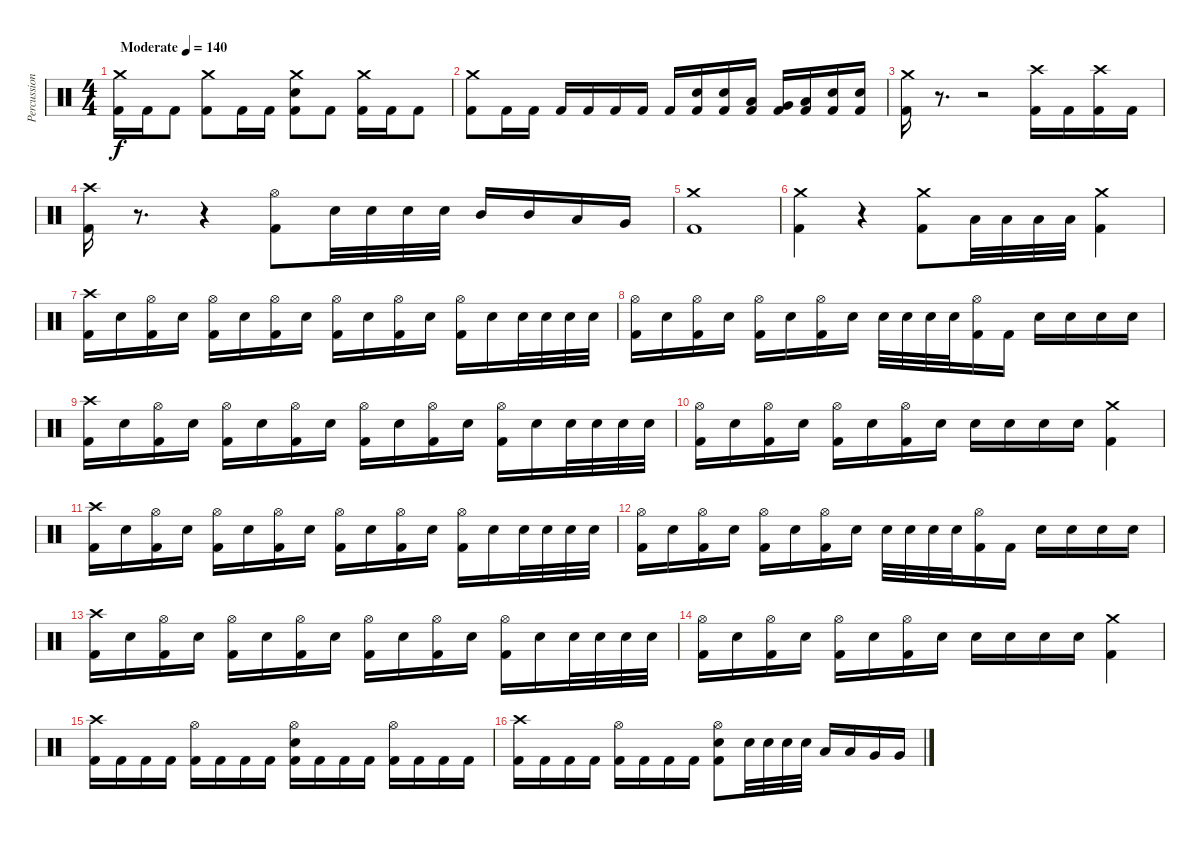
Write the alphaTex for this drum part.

\track ("Percussion" "Percussion") {instrument percussion}
\staff {score}
\articulation defaults
\ts (4 4)
\tempo (140 "Moderate")
\clef neutral
\ks c
("Crash medium (hit)" "Kick (hit) 2").16{dy f} "Kick (hit) 2".16 "Kick (hit) 2".8 ("Crash medium (hit)" "Kick (hit) 2").8 "Kick (hit) 2".16 "Kick (hit) 2".16 ("Crash medium (hit)" "Electric Snare (hit)" "Kick (hit) 2").8 "Kick (hit) 2".8 ("Crash medium (hit)" "Kick (hit) 2").16 "Kick (hit) 2".16 "Kick (hit) 2".8 |
("Crash medium (hit)" "Kick (hit) 2").8 "Kick (hit) 2".16 "Kick (hit) 2".16 "Kick (hit) 2".16 "Kick (hit) 2".16 "Kick (hit) 2".16 "Kick (hit) 2".16 "Kick (hit) 2".16 ("Electric Snare (hit)" "Kick (hit) 2").16 ("Electric Snare (hit)" "Kick (hit) 2").16 ("Low Tom (hit)" "Kick (hit) 2").16 ("Very Low Tom (hit)" "Kick (hit) 2").16 ("Low Floor Tom (hit)" "Kick (hit) 2").16 ("Electric Snare (hit)" "Kick (hit) 2").16 ("Electric Snare (hit)" "Kick (hit) 2").16 |
("Crash medium (hit)" "Kick (hit) 2").16 r.8{d} r.2 ("Crash high (hit)" "Kick (hit) 2").16 "Kick (hit) 2".16 ("Crash high (hit)" "Kick (hit) 2").16 "Kick (hit) 2".16 |
("Crash high (hit)" "Kick (hit) 2").16 r.8{d} r.4 ("Hi-Hat (open)" "Kick (hit) 2").8 "Electric Snare (hit)".32 "Electric Snare (hit)".32 "Electric Snare (hit)".32 "Electric Snare (hit)".32 "Mid Tom (hit)".16 "Mid Tom (hit)".16 "Low Tom (hit)".16 "Very Low Tom (hit)".16 |
("Crash medium (hit)" "Kick (hit) 2").1 |
("Crash medium (hit)" "Kick (hit) 2").4 r.4 ("Crash medium (hit)" "Kick (hit) 2").8 "Low Tom (hit)".32 "Low Tom (hit)".32 "Low Tom (hit)".32 "Low Tom (hit)".32 ("Crash medium (hit)" "Kick (hit) 2").4 |
("Crash high (hit)" "Kick (hit) 2").16 "Electric Snare (hit)".16 ("Hi-Hat (open)" "Kick (hit) 2").16 "Electric Snare (hit)".16 ("Hi-Hat (open)" "Kick (hit) 2").16 "Electric Snare (hit)".16 ("Hi-Hat (open)" "Kick (hit) 2").16 "Electric Snare (hit)".16 ("Hi-Hat (open)" "Kick (hit) 2").16 "Electric Snare (hit)".16 ("Hi-Hat (open)" "Kick (hit) 2").16 "Electric Snare (hit)".16 ("Hi-Hat (open)" "Kick (hit) 2").16 "Electric Snare (hit)".16 "Electric Snare (hit)".32 "Electric Snare (hit)".32 "Electric Snare (hit)".32 "Electric Snare (hit)".32 |
("Hi-Hat (open)" "Kick (hit) 2").16 "Electric Snare (hit)".16 ("Hi-Hat (open)" "Kick (hit) 2").16 "Electric Snare (hit)".16 ("Hi-Hat (open)" "Kick (hit) 2").16 "Electric Snare (hit)".16 ("Hi-Hat (open)" "Kick (hit) 2").16 "Electric Snare (hit)".16 "Electric Snare (hit)".32 "Electric Snare (hit)".32 "Electric Snare (hit)".32 "Electric Snare (hit)".32 ("Hi-Hat (open)" "Kick (hit) 2").16 "Kick (hit) 2".16 "Electric Snare (hit)".16 "Electric Snare (hit)".16 "Electric Snare (hit)".16 "Electric Snare (hit)".16 |
("Crash high (hit)" "Kick (hit) 2").16 "Electric Snare (hit)".16 ("Hi-Hat (open)" "Kick (hit) 2").16 "Electric Snare (hit)".16 ("Hi-Hat (open)" "Kick (hit) 2").16 "Electric Snare (hit)".16 ("Hi-Hat (open)" "Kick (hit) 2").16 "Electric Snare (hit)".16 ("Hi-Hat (open)" "Kick (hit) 2").16 "Electric Snare (hit)".16 ("Hi-Hat (open)" "Kick (hit) 2").16 "Electric Snare (hit)".16 ("Hi-Hat (open)" "Kick (hit) 2").16 "Electric Snare (hit)".16 "Electric Snare (hit)".32 "Electric Snare (hit)".32 "Electric Snare (hit)".32 "Electric Snare (hit)".32 |
("Hi-Hat (open)" "Kick (hit) 2").16 "Electric Snare (hit)".16 ("Hi-Hat (open)" "Kick (hit) 2").16 "Electric Snare (hit)".16 ("Hi-Hat (open)" "Kick (hit) 2").16 "Electric Snare (hit)".16 ("Hi-Hat (open)" "Kick (hit) 2").16 "Electric Snare (hit)".16 "Electric Snare (hit)".16 "Electric Snare (hit)".16 "Electric Snare (hit)".16 "Electric Snare (hit)".16 ("Crash medium (hit)" "Kick (hit) 2").4 |
("Crash high (hit)" "Kick (hit) 2").16 "Electric Snare (hit)".16 ("Hi-Hat (open)" "Kick (hit) 2").16 "Electric Snare (hit)".16 ("Hi-Hat (open)" "Kick (hit) 2").16 "Electric Snare (hit)".16 ("Hi-Hat (open)" "Kick (hit) 2").16 "Electric Snare (hit)".16 ("Hi-Hat (open)" "Kick (hit) 2").16 "Electric Snare (hit)".16 ("Hi-Hat (open)" "Kick (hit) 2").16 "Electric Snare (hit)".16 ("Hi-Hat (open)" "Kick (hit) 2").16 "Electric Snare (hit)".16 "Electric Snare (hit)".32 "Electric Snare (hit)".32 "Electric Snare (hit)".32 "Electric Snare (hit)".32 |
("Hi-Hat (open)" "Kick (hit) 2").16 "Electric Snare (hit)".16 ("Hi-Hat (open)" "Kick (hit) 2").16 "Electric Snare (hit)".16 ("Hi-Hat (open)" "Kick (hit) 2").16 "Electric Snare (hit)".16 ("Hi-Hat (open)" "Kick (hit) 2").16 "Electric Snare (hit)".16 "Electric Snare (hit)".32 "Electric Snare (hit)".32 "Electric Snare (hit)".32 "Electric Snare (hit)".32 ("Hi-Hat (open)" "Kick (hit) 2").16 "Kick (hit) 2".16 "Electric Snare (hit)".16 "Electric Snare (hit)".16 "Electric Snare (hit)".16 "Electric Snare (hit)".16 |
("Crash high (hit)" "Kick (hit) 2").16 "Electric Snare (hit)".16 ("Hi-Hat (open)" "Kick (hit) 2").16 "Electric Snare (hit)".16 ("Hi-Hat (open)" "Kick (hit) 2").16 "Electric Snare (hit)".16 ("Hi-Hat (open)" "Kick (hit) 2").16 "Electric Snare (hit)".16 ("Hi-Hat (open)" "Kick (hit) 2").16 "Electric Snare (hit)".16 ("Hi-Hat (open)" "Kick (hit) 2").16 "Electric Snare (hit)".16 ("Hi-Hat (open)" "Kick (hit) 2").16 "Electric Snare (hit)".16 "Electric Snare (hit)".32 "Electric Snare (hit)".32 "Electric Snare (hit)".32 "Electric Snare (hit)".32 |
("Hi-Hat (open)" "Kick (hit) 2").16 "Electric Snare (hit)".16 ("Hi-Hat (open)" "Kick (hit) 2").16 "Electric Snare (hit)".16 ("Hi-Hat (open)" "Kick (hit) 2").16 "Electric Snare (hit)".16 ("Hi-Hat (open)" "Kick (hit) 2").16 "Electric Snare (hit)".16 "Electric Snare (hit)".16 "Electric Snare (hit)".16 "Electric Snare (hit)".16 "Electric Snare (hit)".16 ("Crash medium (hit)" "Kick (hit) 2").4 |
("Crash high (hit)" "Kick (hit) 2").16 "Kick (hit) 2".16 "Kick (hit) 2".16 "Kick (hit) 2".16 ("Hi-Hat (open)" "Kick (hit) 2").16 "Kick (hit) 2".16 "Kick (hit) 2".16 "Kick (hit) 2".16 ("Hi-Hat (open)" "Electric Snare (hit)" "Kick (hit) 2").16 "Kick (hit) 2".16 "Kick (hit) 2".16 "Kick (hit) 2".16 ("Hi-Hat (open)" "Kick (hit) 2").16 "Kick (hit) 2".16 "Kick (hit) 2".16 "Kick (hit) 2".16 |
("Crash high (hit)" "Kick (hit) 2").16 "Kick (hit) 2".16 "Kick (hit) 2".16 "Kick (hit) 2".16 ("Hi-Hat (open)" "Kick (hit) 2").16 "Kick (hit) 2".16 "Kick (hit) 2".16 "Kick (hit) 2".16 ("Hi-Hat (open)" "Electric Snare (hit)" "Kick (hit) 2").8 "Electric Snare (hit)".32 "Electric Snare (hit)".32 "Electric Snare (hit)".32 "Electric Snare (hit)".32 "Low Tom (hit)".16 "Low Tom (hit)".16 "Very Low Tom (hit)".16 "Very Low Tom (hit)".16
